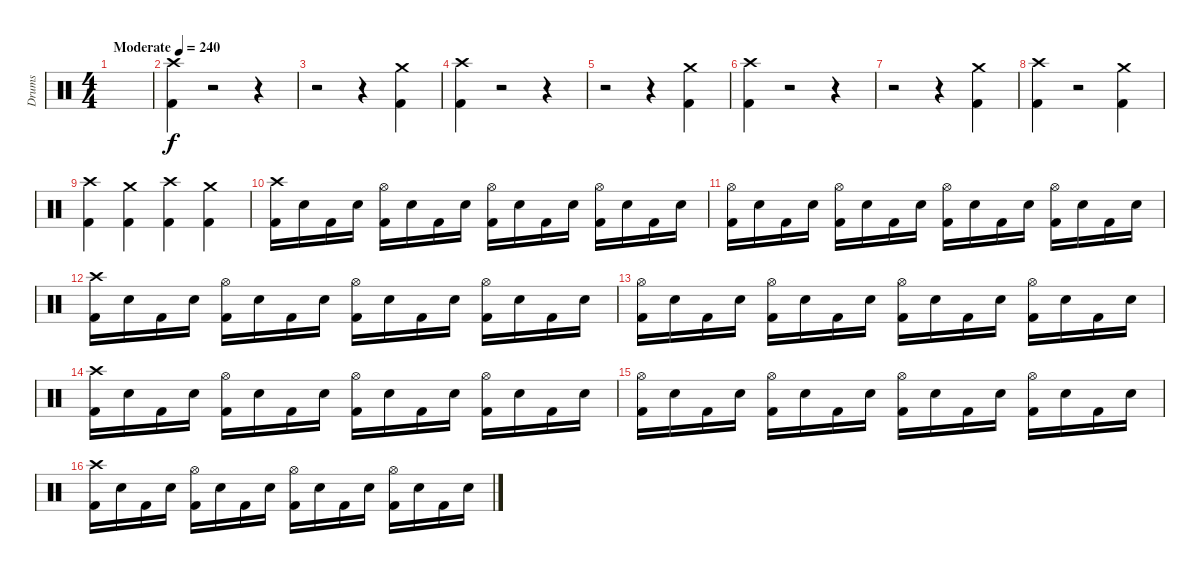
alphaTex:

\track ("Drums" "Drums") {instrument percussion}
\staff {score}
\articulation defaults
\ts (4 4)
\tempo (240 "Moderate")
\clef neutral
\ks c
|
("Crash high (hit)" "Kick (hit) 2").4 r.2 r.4 |
r.2 r.4 ("Crash medium (hit)" "Kick (hit) 2").4 |
("Crash high (hit)" "Kick (hit) 2").4 r.2 r.4 |
r.2 r.4 ("Crash medium (hit)" "Kick (hit) 2").4 |
("Crash high (hit)" "Kick (hit) 2").4 r.2 r.4 |
r.2 r.4 ("Crash medium (hit)" "Kick (hit) 2").4 |
("Crash high (hit)" "Kick (hit) 2").4 r.2 ("Crash medium (hit)" "Kick (hit) 2").4 |
("Crash high (hit)" "Kick (hit) 2").4 ("Crash medium (hit)" "Kick (hit) 2").4 ("Crash high (hit)" "Kick (hit) 2").4 ("Crash medium (hit)" "Kick (hit) 2").4 |
("Crash high (hit)" "Kick (hit) 2").16 "Electric Snare (hit)".16 "Kick (hit) 2".16 "Electric Snare (hit)".16 ("Hi-Hat (open)" "Kick (hit) 2").16 "Electric Snare (hit)".16 "Kick (hit) 2".16 "Electric Snare (hit)".16 ("Hi-Hat (open)" "Kick (hit) 2").16 "Electric Snare (hit)".16 "Kick (hit) 2".16 "Electric Snare (hit)".16 ("Hi-Hat (open)" "Kick (hit) 2").16 "Electric Snare (hit)".16 "Kick (hit) 2".16 "Electric Snare (hit)".16 |
("Hi-Hat (open)" "Kick (hit) 2").16 "Electric Snare (hit)".16 "Kick (hit) 2".16 "Electric Snare (hit)".16 ("Hi-Hat (open)" "Kick (hit) 2").16 "Electric Snare (hit)".16 "Kick (hit) 2".16 "Electric Snare (hit)".16 ("Hi-Hat (open)" "Kick (hit) 2").16 "Electric Snare (hit)".16 "Kick (hit) 2".16 "Electric Snare (hit)".16 ("Hi-Hat (open)" "Kick (hit) 2").16 "Electric Snare (hit)".16 "Kick (hit) 2".16 "Electric Snare (hit)".16 |
("Crash high (hit)" "Kick (hit) 2").16 "Electric Snare (hit)".16 "Kick (hit) 2".16 "Electric Snare (hit)".16 ("Hi-Hat (open)" "Kick (hit) 2").16 "Electric Snare (hit)".16 "Kick (hit) 2".16 "Electric Snare (hit)".16 ("Hi-Hat (open)" "Kick (hit) 2").16 "Electric Snare (hit)".16 "Kick (hit) 2".16 "Electric Snare (hit)".16 ("Hi-Hat (open)" "Kick (hit) 2").16 "Electric Snare (hit)".16 "Kick (hit) 2".16 "Electric Snare (hit)".16 |
("Hi-Hat (open)" "Kick (hit) 2").16 "Electric Snare (hit)".16 "Kick (hit) 2".16 "Electric Snare (hit)".16 ("Hi-Hat (open)" "Kick (hit) 2").16 "Electric Snare (hit)".16 "Kick (hit) 2".16 "Electric Snare (hit)".16 ("Hi-Hat (open)" "Kick (hit) 2").16 "Electric Snare (hit)".16 "Kick (hit) 2".16 "Electric Snare (hit)".16 ("Hi-Hat (open)" "Kick (hit) 2").16 "Electric Snare (hit)".16 "Kick (hit) 2".16 "Electric Snare (hit)".16 |
("Crash high (hit)" "Kick (hit) 2").16 "Electric Snare (hit)".16 "Kick (hit) 2".16 "Electric Snare (hit)".16 ("Hi-Hat (open)" "Kick (hit) 2").16 "Electric Snare (hit)".16 "Kick (hit) 2".16 "Electric Snare (hit)".16 ("Hi-Hat (open)" "Kick (hit) 2").16 "Electric Snare (hit)".16 "Kick (hit) 2".16 "Electric Snare (hit)".16 ("Hi-Hat (open)" "Kick (hit) 2").16 "Electric Snare (hit)".16 "Kick (hit) 2".16 "Electric Snare (hit)".16 |
("Hi-Hat (open)" "Kick (hit) 2").16 "Electric Snare (hit)".16 "Kick (hit) 2".16 "Electric Snare (hit)".16 ("Hi-Hat (open)" "Kick (hit) 2").16 "Electric Snare (hit)".16 "Kick (hit) 2".16 "Electric Snare (hit)".16 ("Hi-Hat (open)" "Kick (hit) 2").16 "Electric Snare (hit)".16 "Kick (hit) 2".16 "Electric Snare (hit)".16 ("Hi-Hat (open)" "Kick (hit) 2").16 "Electric Snare (hit)".16 "Kick (hit) 2".16 "Electric Snare (hit)".16 |
("Crash high (hit)" "Kick (hit) 2").16 "Electric Snare (hit)".16 "Kick (hit) 2".16 "Electric Snare (hit)".16 ("Hi-Hat (open)" "Kick (hit) 2").16 "Electric Snare (hit)".16 "Kick (hit) 2".16 "Electric Snare (hit)".16 ("Hi-Hat (open)" "Kick (hit) 2").16 "Electric Snare (hit)".16 "Kick (hit) 2".16 "Electric Snare (hit)".16 ("Hi-Hat (open)" "Kick (hit) 2").16 "Electric Snare (hit)".16 "Kick (hit) 2".16 "Electric Snare (hit)".16
